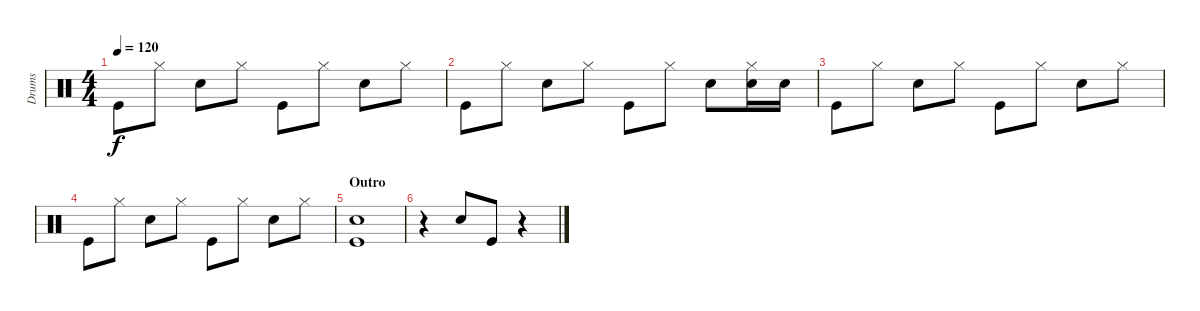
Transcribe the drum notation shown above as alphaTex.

\track ("Drums" "Drums") {instrument percussion}
\staff {score}
\articulation defaults
\ts (4 4)
\tempo 120
\clef neutral
\ks c "Kick (hit)".8{dy f} "Hi-Hat (closed)".8 "Snare (hit) 2".8 "Hi-Hat (closed)".8 "Kick (hit)".8 "Hi-Hat (closed)".8 "Snare (hit) 2".8 "Hi-Hat (closed)".8
|
"Kick (hit)".8 "Hi-Hat (closed)".8 "Snare (hit) 2".8 "Hi-Hat (closed)".8 "Kick (hit)".8 "Hi-Hat (closed)".8 "Snare (hit) 2".8 ("Hi-Hat (closed)" "Snare (hit) 2").16 "Snare (hit) 2".16 |
"Kick (hit)".8 "Hi-Hat (closed)".8 "Snare (hit) 2".8 "Hi-Hat (closed)".8 "Kick (hit)".8 "Hi-Hat (closed)".8 "Snare (hit) 2".8 "Hi-Hat (closed)".8 |
"Kick (hit)".8 "Hi-Hat (closed)".8 "Snare (hit) 2".8 "Hi-Hat (closed)".8 "Kick (hit)".8 "Hi-Hat (closed)".8 "Snare (hit) 2".8 "Hi-Hat (closed)".8 |
\section ("" "Outro")
("Snare (hit) 2" "Kick (hit)").1 |
r.4 "Snare (hit) 2".8 "Kick (hit)".8 r.4
